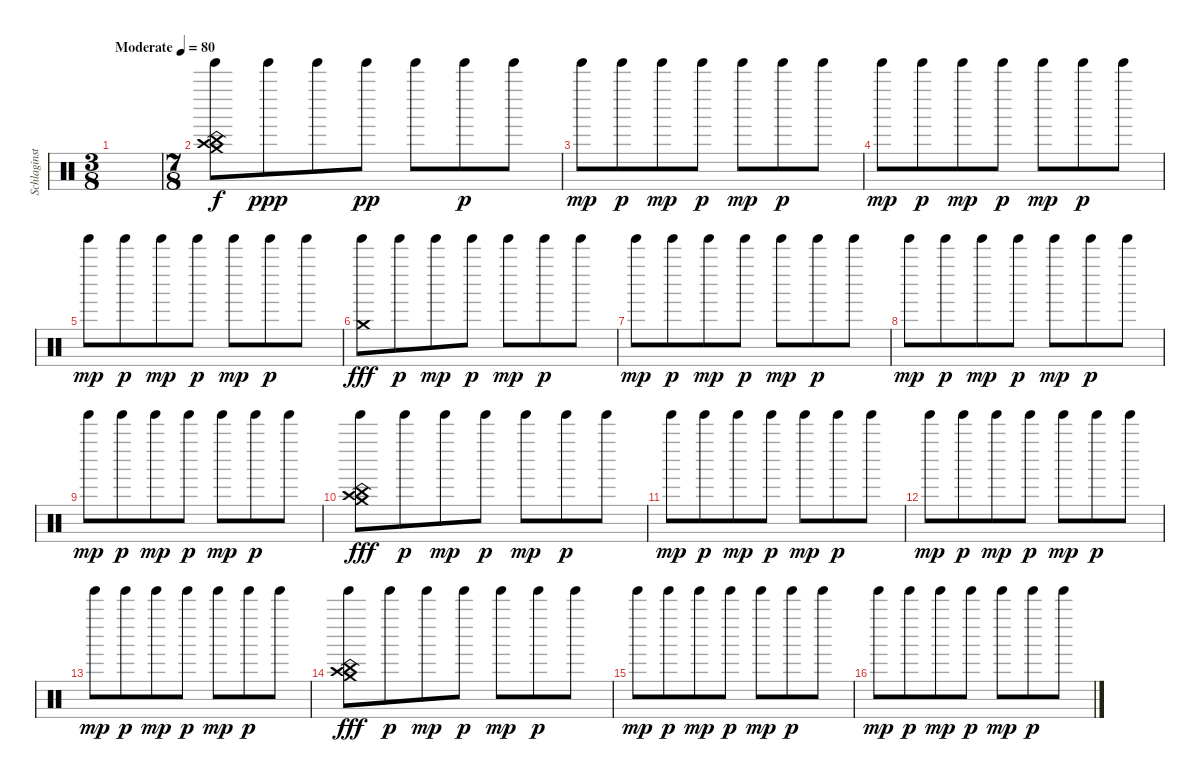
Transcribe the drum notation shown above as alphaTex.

\track ("Schlaginstrumente - Auswahl" "Schlaginst") {instrument percussion}
\staff {score}
\articulation defaults
\ts (3 8)
\tempo (80 "Moderate")
\clef neutral
\ks c
|
\ts (7 8)
("Crash high (hit)" "China (hit)" "Tinkle Bell (hit)" "Crash medium (hit)").8 "Tinkle Bell (hit)".8{dy ppp} "Tinkle Bell (hit)".8 "Tinkle Bell (hit)".8{dy pp} "Tinkle Bell (hit)".8 "Tinkle Bell (hit)".8{dy p} "Tinkle Bell (hit)".8 |
"Tinkle Bell (hit)".8{dy mp} "Tinkle Bell (hit)".8{dy p} "Tinkle Bell (hit)".8{dy mp} "Tinkle Bell (hit)".8{dy p} "Tinkle Bell (hit)".8{dy mp} "Tinkle Bell (hit)".8{dy p} "Tinkle Bell (hit)".8 |
"Tinkle Bell (hit)".8{dy mp} "Tinkle Bell (hit)".8{dy p} "Tinkle Bell (hit)".8{dy mp} "Tinkle Bell (hit)".8{dy p} "Tinkle Bell (hit)".8{dy mp} "Tinkle Bell (hit)".8{dy p} "Tinkle Bell (hit)".8 |
"Tinkle Bell (hit)".8{dy mp} "Tinkle Bell (hit)".8{dy p} "Tinkle Bell (hit)".8{dy mp} "Tinkle Bell (hit)".8{dy p} "Tinkle Bell (hit)".8{dy mp} "Tinkle Bell (hit)".8{dy p} "Tinkle Bell (hit)".8 |
("Crash medium (hit)" "Tinkle Bell (hit)").8{dy fff} "Tinkle Bell (hit)".8{dy p} "Tinkle Bell (hit)".8{dy mp} "Tinkle Bell (hit)".8{dy p} "Tinkle Bell (hit)".8{dy mp} "Tinkle Bell (hit)".8{dy p} "Tinkle Bell (hit)".8 |
"Tinkle Bell (hit)".8{dy mp} "Tinkle Bell (hit)".8{dy p} "Tinkle Bell (hit)".8{dy mp} "Tinkle Bell (hit)".8{dy p} "Tinkle Bell (hit)".8{dy mp} "Tinkle Bell (hit)".8{dy p} "Tinkle Bell (hit)".8 |
"Tinkle Bell (hit)".8{dy mp} "Tinkle Bell (hit)".8{dy p} "Tinkle Bell (hit)".8{dy mp} "Tinkle Bell (hit)".8{dy p} "Tinkle Bell (hit)".8{dy mp} "Tinkle Bell (hit)".8{dy p} "Tinkle Bell (hit)".8 |
"Tinkle Bell (hit)".8{dy mp} "Tinkle Bell (hit)".8{dy p} "Tinkle Bell (hit)".8{dy mp} "Tinkle Bell (hit)".8{dy p} "Tinkle Bell (hit)".8{dy mp} "Tinkle Bell (hit)".8{dy p} "Tinkle Bell (hit)".8 |
("Crash high (hit)" "China (hit)" "Tinkle Bell (hit)" "Crash medium (hit)").8{dy fff} "Tinkle Bell (hit)".8{dy p} "Tinkle Bell (hit)".8{dy mp} "Tinkle Bell (hit)".8{dy p} "Tinkle Bell (hit)".8{dy mp} "Tinkle Bell (hit)".8{dy p} "Tinkle Bell (hit)".8 |
"Tinkle Bell (hit)".8{dy mp} "Tinkle Bell (hit)".8{dy p} "Tinkle Bell (hit)".8{dy mp} "Tinkle Bell (hit)".8{dy p} "Tinkle Bell (hit)".8{dy mp} "Tinkle Bell (hit)".8{dy p} "Tinkle Bell (hit)".8 |
"Tinkle Bell (hit)".8{dy mp} "Tinkle Bell (hit)".8{dy p} "Tinkle Bell (hit)".8{dy mp} "Tinkle Bell (hit)".8{dy p} "Tinkle Bell (hit)".8{dy mp} "Tinkle Bell (hit)".8{dy p} "Tinkle Bell (hit)".8 |
"Tinkle Bell (hit)".8{dy mp} "Tinkle Bell (hit)".8{dy p} "Tinkle Bell (hit)".8{dy mp} "Tinkle Bell (hit)".8{dy p} "Tinkle Bell (hit)".8{dy mp} "Tinkle Bell (hit)".8{dy p} "Tinkle Bell (hit)".8 |
("Crash high (hit)" "China (hit)" "Tinkle Bell (hit)" "Crash medium (hit)").8{dy fff} "Tinkle Bell (hit)".8{dy p} "Tinkle Bell (hit)".8{dy mp} "Tinkle Bell (hit)".8{dy p} "Tinkle Bell (hit)".8{dy mp} "Tinkle Bell (hit)".8{dy p} "Tinkle Bell (hit)".8 |
"Tinkle Bell (hit)".8{dy mp} "Tinkle Bell (hit)".8{dy p} "Tinkle Bell (hit)".8{dy mp} "Tinkle Bell (hit)".8{dy p} "Tinkle Bell (hit)".8{dy mp} "Tinkle Bell (hit)".8{dy p} "Tinkle Bell (hit)".8 |
"Tinkle Bell (hit)".8{dy mp} "Tinkle Bell (hit)".8{dy p} "Tinkle Bell (hit)".8{dy mp} "Tinkle Bell (hit)".8{dy p} "Tinkle Bell (hit)".8{dy mp} "Tinkle Bell (hit)".8{dy p} "Tinkle Bell (hit)".8
